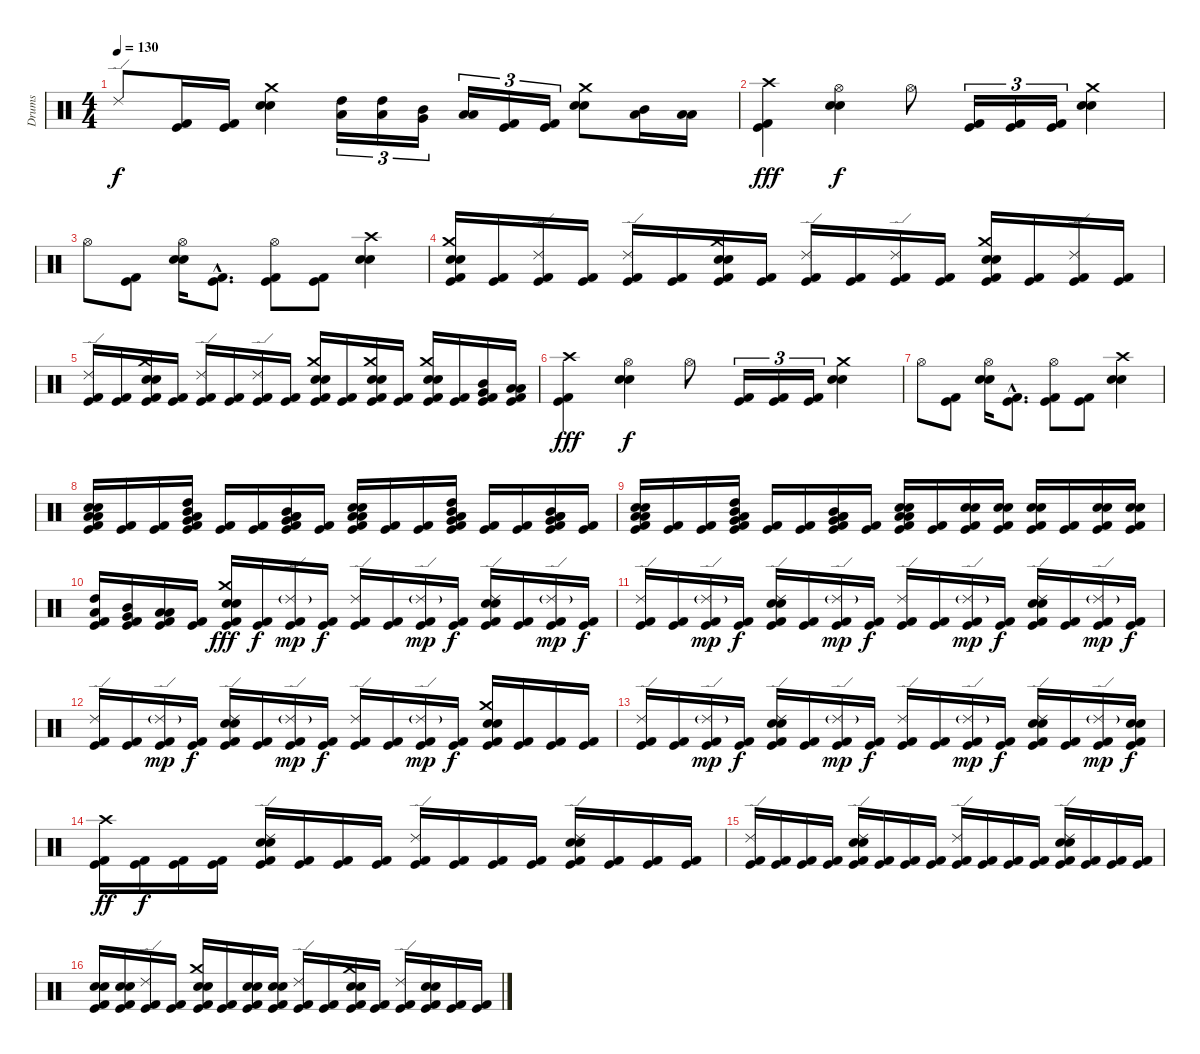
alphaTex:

\track ("Drums" "Drums") {instrument percussion}
\staff {score}
\articulation defaults
\ts (4 4)
\tempo 130
\clef neutral
\ks c "Ride (edge) 2".8{dy f}
("Kick (hit) 2" "Kick (hit)").16 ("Kick (hit) 2" "Kick (hit)").16 ("Crash medium (hit)" "Electric Snare (hit)" "Snare (hit) 2").4 ("High Tom (hit)" "Low Tom (hit)").16{tu (3 2)} ("High Tom (hit)" "Low Tom (hit)").16{tu (3 2)} ("Mid Tom (hit)" "Very Low Tom (hit)").16{tu (3 2)} ("Low Tom (hit)" "Low Floor Tom (hit)").16{tu (3 2)} ("Kick (hit) 2" "Kick (hit)").16{tu (3 2)} ("Kick (hit) 2" "Kick (hit)").16{tu (3 2)} ("Crash medium (hit)" "Electric Snare (hit)" "Snare (hit) 2").8 ("Mid Tom (hit)" "Low Floor Tom (hit)").16 ("Low Tom (hit)" "Low Floor Tom (hit)").16 |
("Crash high (hit)" "Kick (hit) 2" "Kick (hit)").4{dy fff} ("Hi-Hat (open)" "Electric Snare (hit)" "Snare (hit) 2").4{dy f} "Hi-Hat (open)".8 ("Kick (hit) 2" "Kick (hit)").16{tu (3 2)} ("Kick (hit) 2" "Kick (hit)").16{tu (3 2)} ("Kick (hit) 2" "Kick (hit)").16{tu (3 2)} ("Crash medium (hit)" "Electric Snare (hit)" "Snare (hit) 2").4 |
"Hi-Hat (open)".8 ("Kick (hit) 2" "Kick (hit)").8 ("Hi-Hat (open)" "Electric Snare (hit)" "Snare (hit) 2").16 ("Kick (hit) 2"{hac} "Kick (hit)"{hac}).8{d} ("Hi-Hat (open)" "Kick (hit) 2" "Kick (hit)").8 ("Kick (hit) 2" "Kick (hit)").8 ("Crash high (hit)" "Electric Snare (hit)" "Snare (hit) 2").4 |
("Crash medium (hit)" "Electric Snare (hit)" "Snare (hit) 2" "Kick (hit) 2" "Kick (hit)").16 ("Kick (hit) 2" "Kick (hit)").16 ("Ride (edge) 2" "Kick (hit) 2" "Kick (hit)").16 ("Kick (hit) 2" "Kick (hit)").16 ("Ride (edge) 2" "Kick (hit) 2" "Kick (hit)").16 ("Kick (hit) 2" "Kick (hit)").16 ("Crash medium (hit)" "Electric Snare (hit)" "Snare (hit) 2" "Kick (hit) 2" "Kick (hit)").16 ("Kick (hit) 2" "Kick (hit)").16 ("Ride (edge) 2" "Kick (hit) 2" "Kick (hit)").16 ("Kick (hit) 2" "Kick (hit)").16 ("Ride (edge) 2" "Kick (hit) 2" "Kick (hit)").16 ("Kick (hit) 2" "Kick (hit)").16 ("Crash medium (hit)" "Electric Snare (hit)" "Snare (hit) 2" "Kick (hit) 2" "Kick (hit)").16 ("Kick (hit) 2" "Kick (hit)").16 ("Ride (edge) 2" "Kick (hit) 2" "Kick (hit)").16 ("Kick (hit) 2" "Kick (hit)").16 |
("Ride (edge) 2" "Kick (hit) 2" "Kick (hit)").16 ("Kick (hit) 2" "Kick (hit)").16 ("Crash medium (hit)" "Electric Snare (hit)" "Snare (hit) 2" "Kick (hit) 2" "Kick (hit)").16 ("Kick (hit) 2" "Kick (hit)").16 ("Ride (edge) 2" "Kick (hit) 2" "Kick (hit)").16 ("Kick (hit) 2" "Kick (hit)").16 ("Ride (edge) 2" "Kick (hit) 2" "Kick (hit)").16 ("Kick (hit) 2" "Kick (hit)").16 ("Crash medium (hit)" "Electric Snare (hit)" "Snare (hit) 2" "Kick (hit) 2" "Kick (hit)").16 ("Kick (hit) 2" "Kick (hit)").16 ("Crash medium (hit)" "Electric Snare (hit)" "Snare (hit) 2" "Kick (hit) 2" "Kick (hit)").16 ("Kick (hit) 2" "Kick (hit)").16 ("Crash medium (hit)" "Electric Snare (hit)" "Snare (hit) 2" "Kick (hit) 2" "Kick (hit)").16 ("Kick (hit) 2" "Kick (hit)").16 ("Mid Tom (hit)" "Very Low Tom (hit)" "Kick (hit) 2" "Kick (hit)").16 ("Low Tom (hit)" "Low Floor Tom (hit)" "Kick (hit) 2" "Kick (hit)").16 |
("Crash high (hit)" "Kick (hit) 2" "Kick (hit)").4{dy fff} ("Hi-Hat (open)" "Electric Snare (hit)" "Snare (hit) 2").4{dy f} "Hi-Hat (open)".8 ("Kick (hit) 2" "Kick (hit)").16{tu (3 2)} ("Kick (hit) 2" "Kick (hit)").16{tu (3 2)} ("Kick (hit) 2" "Kick (hit)").16{tu (3 2)} ("Crash medium (hit)" "Electric Snare (hit)" "Snare (hit) 2").4 |
"Hi-Hat (open)".8 ("Kick (hit) 2" "Kick (hit)").8 ("Hi-Hat (open)" "Electric Snare (hit)" "Snare (hit) 2").16 ("Kick (hit) 2"{hac} "Kick (hit)"{hac}).8{d} ("Hi-Hat (open)" "Kick (hit) 2" "Kick (hit)").8 ("Kick (hit) 2" "Kick (hit)").8 ("Crash high (hit)" "Electric Snare (hit)" "Snare (hit) 2").4 |
("Low Tom (hit)" "Low Floor Tom (hit)" "Electric Snare (hit)" "Snare (hit) 2" "Kick (hit) 2" "Kick (hit)").16 ("Kick (hit) 2" "Kick (hit)").16 ("Kick (hit) 2" "Kick (hit)").16 ("High Tom (hit)" "Low Tom (hit)" "Mid Tom (hit)" "Very Low Tom (hit)" "Kick (hit) 2" "Kick (hit)").16 ("Kick (hit) 2" "Kick (hit)").16 ("Kick (hit) 2" "Kick (hit)").16 ("Mid Tom (hit)" "Very Low Tom (hit)" "Low Tom (hit)" "Low Floor Tom (hit)" "Kick (hit) 2" "Kick (hit)").16 ("Kick (hit) 2" "Kick (hit)").16 ("Low Tom (hit)" "Low Floor Tom (hit)" "Electric Snare (hit)" "Snare (hit) 2" "Kick (hit) 2" "Kick (hit)").16 ("Kick (hit) 2" "Kick (hit)").16 ("Kick (hit) 2" "Kick (hit)").16 ("High Tom (hit)" "Low Tom (hit)" "Mid Tom (hit)" "Very Low Tom (hit)" "Kick (hit) 2" "Kick (hit)").16 ("Kick (hit) 2" "Kick (hit)").16 ("Kick (hit) 2" "Kick (hit)").16 ("Mid Tom (hit)" "Very Low Tom (hit)" "Low Tom (hit)" "Low Floor Tom (hit)" "Kick (hit) 2" "Kick (hit)").16 ("Kick (hit) 2" "Kick (hit)").16 |
("Low Tom (hit)" "Low Floor Tom (hit)" "Electric Snare (hit)" "Snare (hit) 2" "Kick (hit) 2" "Kick (hit)").16 ("Kick (hit) 2" "Kick (hit)").16 ("Kick (hit) 2" "Kick (hit)").16 ("High Tom (hit)" "Low Tom (hit)" "Mid Tom (hit)" "Very Low Tom (hit)" "Kick (hit) 2" "Kick (hit)").16 ("Kick (hit) 2" "Kick (hit)").16 ("Kick (hit) 2" "Kick (hit)").16 ("Mid Tom (hit)" "Very Low Tom (hit)" "Low Tom (hit)" "Low Floor Tom (hit)" "Kick (hit) 2" "Kick (hit)").16 ("Kick (hit) 2" "Kick (hit)").16 ("Low Tom (hit)" "Low Floor Tom (hit)" "Electric Snare (hit)" "Snare (hit) 2" "Kick (hit) 2" "Kick (hit)").16 ("Kick (hit) 2" "Kick (hit)").16 ("Electric Snare (hit)" "Snare (hit) 2" "Kick (hit) 2" "Kick (hit)").16 ("Electric Snare (hit)" "Snare (hit) 2" "Kick (hit) 2" "Kick (hit)").16 ("Electric Snare (hit)" "Snare (hit) 2" "Kick (hit) 2" "Kick (hit)").16 ("Kick (hit) 2" "Kick (hit)").16 ("Electric Snare (hit)" "Snare (hit) 2" "Kick (hit) 2" "Kick (hit)").16 ("Electric Snare (hit)" "Snare (hit) 2" "Kick (hit) 2" "Kick (hit)").16 |
("High Tom (hit)" "Low Tom (hit)" "Kick (hit) 2" "Kick (hit)").16 ("Mid Tom (hit)" "Very Low Tom (hit)" "Kick (hit) 2" "Kick (hit)").16 ("Low Tom (hit)" "Low Floor Tom (hit)" "Kick (hit) 2" "Kick (hit)").16 ("Kick (hit) 2" "Kick (hit)").16 ("Crash medium (hit)" "Electric Snare (hit)" "Snare (hit) 2" "Kick (hit) 2" "Kick (hit)").16{dy fff} ("Kick (hit) 2" "Kick (hit)").16{dy f} ("Ride (edge) 2"{g} "Kick (hit) 2" "Kick (hit)").16{dy mp} ("Kick (hit) 2" "Kick (hit)").16{dy f} ("Ride (edge) 2" "Kick (hit) 2" "Kick (hit)").16 ("Kick (hit) 2" "Kick (hit)").16 ("Ride (edge) 2"{g} "Kick (hit) 2" "Kick (hit)").16{dy mp} ("Kick (hit) 2" "Kick (hit)").16{dy f} ("Ride (edge) 2" "Electric Snare (hit)" "Snare (hit) 2" "Kick (hit) 2" "Kick (hit)").16 ("Kick (hit) 2" "Kick (hit)").16 ("Ride (edge) 2"{g} "Kick (hit) 2" "Kick (hit)").16{dy mp} ("Kick (hit) 2" "Kick (hit)").16{dy f} |
("Ride (edge) 2" "Kick (hit) 2" "Kick (hit)").16 ("Kick (hit) 2" "Kick (hit)").16 ("Ride (edge) 2"{g} "Kick (hit) 2" "Kick (hit)").16{dy mp} ("Kick (hit) 2" "Kick (hit)").16{dy f} ("Ride (edge) 2" "Electric Snare (hit)" "Snare (hit) 2" "Kick (hit) 2" "Kick (hit)").16 ("Kick (hit) 2" "Kick (hit)").16 ("Ride (edge) 2"{g} "Kick (hit) 2" "Kick (hit)").16{dy mp} ("Kick (hit) 2" "Kick (hit)").16{dy f} ("Ride (edge) 2" "Kick (hit) 2" "Kick (hit)").16 ("Kick (hit) 2" "Kick (hit)").16 ("Ride (edge) 2"{g} "Kick (hit) 2" "Kick (hit)").16{dy mp} ("Kick (hit) 2" "Kick (hit)").16{dy f} ("Ride (edge) 2" "Electric Snare (hit)" "Snare (hit) 2" "Kick (hit) 2" "Kick (hit)").16 ("Kick (hit) 2" "Kick (hit)").16 ("Ride (edge) 2"{g} "Kick (hit) 2" "Kick (hit)").16{dy mp} ("Kick (hit) 2" "Kick (hit)").16{dy f} |
("Ride (edge) 2" "Kick (hit) 2" "Kick (hit)").16 ("Kick (hit) 2" "Kick (hit)").16 ("Ride (edge) 2"{g} "Kick (hit) 2" "Kick (hit)").16{dy mp} ("Kick (hit) 2" "Kick (hit)").16{dy f} ("Ride (edge) 2" "Electric Snare (hit)" "Snare (hit) 2" "Kick (hit) 2" "Kick (hit)").16 ("Kick (hit) 2" "Kick (hit)").16 ("Ride (edge) 2"{g} "Kick (hit) 2" "Kick (hit)").16{dy mp} ("Kick (hit) 2" "Kick (hit)").16{dy f} ("Ride (edge) 2" "Kick (hit) 2" "Kick (hit)").16 ("Kick (hit) 2" "Kick (hit)").16 ("Ride (edge) 2"{g} "Kick (hit) 2" "Kick (hit)").16{dy mp} ("Kick (hit) 2" "Kick (hit)").16{dy f} ("Crash medium (hit)" "Electric Snare (hit)" "Snare (hit) 2" "Kick (hit) 2" "Kick (hit)").16 ("Kick (hit) 2" "Kick (hit)").16 ("Kick (hit) 2" "Kick (hit)").16 ("Kick (hit) 2" "Kick (hit)").16 |
("Ride (edge) 2" "Kick (hit) 2" "Kick (hit)").16 ("Kick (hit) 2" "Kick (hit)").16 ("Ride (edge) 2"{g} "Kick (hit) 2" "Kick (hit)").16{dy mp} ("Kick (hit) 2" "Kick (hit)").16{dy f} ("Ride (edge) 2" "Electric Snare (hit)" "Snare (hit) 2" "Kick (hit) 2" "Kick (hit)").16 ("Kick (hit) 2" "Kick (hit)").16 ("Ride (edge) 2"{g} "Kick (hit) 2" "Kick (hit)").16{dy mp} ("Kick (hit) 2" "Kick (hit)").16{dy f} ("Ride (edge) 2" "Kick (hit) 2" "Kick (hit)").16 ("Kick (hit) 2" "Kick (hit)").16 ("Ride (edge) 2"{g} "Kick (hit) 2" "Kick (hit)").16{dy mp} ("Kick (hit) 2" "Kick (hit)").16{dy f} ("Ride (edge) 2" "Electric Snare (hit)" "Snare (hit) 2" "Kick (hit) 2" "Kick (hit)").16 ("Kick (hit) 2" "Kick (hit)").16 ("Ride (edge) 2"{g} "Kick (hit) 2" "Kick (hit)").16{dy mp} ("Electric Snare (hit)" "Snare (hit) 2" "Kick (hit) 2" "Kick (hit)").16{dy f} |
("Crash high (hit)" "Kick (hit) 2" "Kick (hit)").16{dy ff} ("Kick (hit) 2" "Kick (hit)").16{dy f} ("Kick (hit) 2" "Kick (hit)").16 ("Kick (hit) 2" "Kick (hit)").16 ("Ride (edge) 2" "Electric Snare (hit)" "Snare (hit) 2" "Kick (hit) 2" "Kick (hit)").16 ("Kick (hit) 2" "Kick (hit)").16 ("Kick (hit) 2" "Kick (hit)").16 ("Kick (hit) 2" "Kick (hit)").16 ("Ride (edge) 2" "Kick (hit) 2" "Kick (hit)").16 ("Kick (hit) 2" "Kick (hit)").16 ("Kick (hit) 2" "Kick (hit)").16 ("Kick (hit) 2" "Kick (hit)").16 ("Ride (edge) 2" "Electric Snare (hit)" "Snare (hit) 2" "Kick (hit) 2" "Kick (hit)").16 ("Kick (hit) 2" "Kick (hit)").16 ("Kick (hit) 2" "Kick (hit)").16 ("Kick (hit) 2" "Kick (hit)").16 |
("Ride (edge) 2" "Kick (hit) 2" "Kick (hit)").16 ("Kick (hit) 2" "Kick (hit)").16 ("Kick (hit) 2" "Kick (hit)").16 ("Kick (hit) 2" "Kick (hit)").16 ("Ride (edge) 2" "Electric Snare (hit)" "Snare (hit) 2" "Kick (hit) 2" "Kick (hit)").16 ("Kick (hit) 2" "Kick (hit)").16 ("Kick (hit) 2" "Kick (hit)").16 ("Kick (hit) 2" "Kick (hit)").16 ("Ride (edge) 2" "Kick (hit) 2" "Kick (hit)").16 ("Kick (hit) 2" "Kick (hit)").16 ("Kick (hit) 2" "Kick (hit)").16 ("Kick (hit) 2" "Kick (hit)").16 ("Ride (edge) 2" "Electric Snare (hit)" "Snare (hit) 2" "Kick (hit) 2" "Kick (hit)").16 ("Kick (hit) 2" "Kick (hit)").16 ("Kick (hit) 2" "Kick (hit)").16 ("Kick (hit) 2" "Kick (hit)").16 |
("Electric Snare (hit)" "Snare (hit) 2" "Kick (hit) 2" "Kick (hit)").16 ("Electric Snare (hit)" "Snare (hit) 2" "Kick (hit) 2" "Kick (hit)").16 ("Ride (edge) 2" "Kick (hit) 2" "Kick (hit)").16 ("Kick (hit) 2" "Kick (hit)").16 ("Crash medium (hit)" "Electric Snare (hit)" "Snare (hit) 2" "Kick (hit) 2" "Kick (hit)").16 ("Kick (hit) 2" "Kick (hit)").16 ("Electric Snare (hit)" "Snare (hit) 2" "Kick (hit) 2" "Kick (hit)").16 ("Electric Snare (hit)" "Snare (hit) 2" "Kick (hit) 2" "Kick (hit)").16 ("Ride (edge) 2" "Kick (hit) 2" "Kick (hit)").16 ("Kick (hit) 2" "Kick (hit)").16 ("Crash medium (hit)" "Electric Snare (hit)" "Snare (hit) 2" "Kick (hit) 2" "Kick (hit)").16 ("Kick (hit) 2" "Kick (hit)").16 ("Ride (edge) 2" "Kick (hit) 2" "Kick (hit)").16 ("Electric Snare (hit)" "Snare (hit) 2" "Kick (hit) 2" "Kick (hit)").16 ("Kick (hit) 2" "Kick (hit)").16 ("Kick (hit) 2" "Kick (hit)").16
